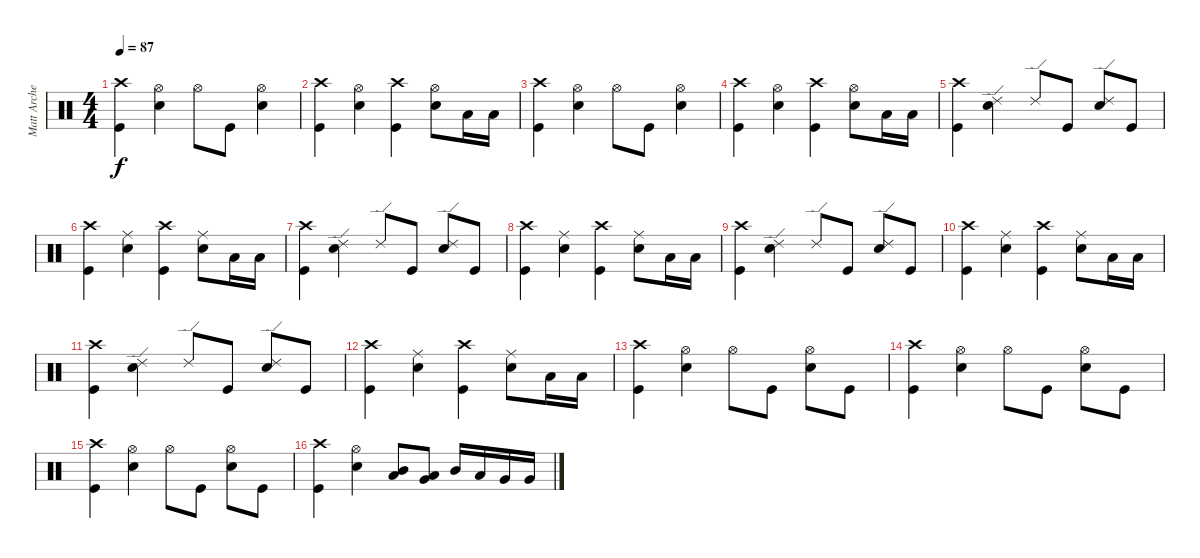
\track ("Matt Archer" "Matt Arche") {instrument percussion}
\staff {score}
\articulation defaults
\ts (4 4)
\tempo 87
\clef neutral
\ks c
("Kick (hit)" "Crash high (hit)").4{dy f} ("Snare (hit) 2" "Hi-Hat (open)").4 "Hi-Hat (open)".8 "Kick (hit)".8 ("Snare (hit) 2" "Hi-Hat (open)").4 |
("Kick (hit)" "Crash high (hit)").4 ("Snare (hit) 2" "Hi-Hat (open)").4 ("Kick (hit)" "Crash high (hit)").4 ("Snare (hit) 2" "Hi-Hat (open)").8 "Low Tom (hit)".16 "Low Tom (hit)".16 |
("Kick (hit)" "Crash high (hit)").4 ("Snare (hit) 2" "Hi-Hat (open)").4 "Hi-Hat (open)".8 "Kick (hit)".8 ("Snare (hit) 2" "Hi-Hat (open)").4 |
("Kick (hit)" "Crash high (hit)").4 ("Snare (hit) 2" "Hi-Hat (open)").4 ("Kick (hit)" "Crash high (hit)").4 ("Snare (hit) 2" "Hi-Hat (open)").8 "Low Tom (hit)".16 "Low Tom (hit)".16 |
("Kick (hit)" "Crash high (hit)").4 ("Snare (hit) 2" "Ride (edge) 2").4 "Ride (edge) 2".8 "Kick (hit)".8 ("Snare (hit) 2" "Ride (edge) 2").8 "Kick (hit)".8 |
("Kick (hit)" "Crash high (hit)").4 ("Snare (hit) 2" "Ride (middle)").4 ("Kick (hit)" "Crash high (hit)").4 ("Snare (hit) 2" "Ride (middle)").8 "Low Tom (hit)".16 "Low Tom (hit)".16 |
("Kick (hit)" "Crash high (hit)").4 ("Snare (hit) 2" "Ride (edge) 2").4 "Ride (edge) 2".8 "Kick (hit)".8 ("Snare (hit) 2" "Ride (edge) 2").8 "Kick (hit)".8 |
("Kick (hit)" "Crash high (hit)").4 ("Snare (hit) 2" "Ride (middle)").4 ("Kick (hit)" "Crash high (hit)").4 ("Snare (hit) 2" "Ride (middle)").8 "Low Tom (hit)".16 "Low Tom (hit)".16 |
("Kick (hit)" "Crash high (hit)").4 ("Snare (hit) 2" "Ride (edge) 2").4 "Ride (edge) 2".8 "Kick (hit)".8 ("Snare (hit) 2" "Ride (edge) 2").8 "Kick (hit)".8 |
("Kick (hit)" "Crash high (hit)").4 ("Snare (hit) 2" "Ride (middle)").4 ("Kick (hit)" "Crash high (hit)").4 ("Snare (hit) 2" "Ride (middle)").8 "Low Tom (hit)".16 "Low Tom (hit)".16 |
("Kick (hit)" "Crash high (hit)").4 ("Snare (hit) 2" "Ride (edge) 2").4 "Ride (edge) 2".8 "Kick (hit)".8 ("Snare (hit) 2" "Ride (edge) 2").8 "Kick (hit)".8 |
("Kick (hit)" "Crash high (hit)").4 ("Snare (hit) 2" "Ride (middle)").4 ("Kick (hit)" "Crash high (hit)").4 ("Snare (hit) 2" "Ride (middle)").8 "Low Tom (hit)".16 "Low Tom (hit)".16 |
("Kick (hit)" "Crash high (hit)").4 ("Snare (hit) 2" "Hi-Hat (open)").4 "Hi-Hat (open)".8 "Kick (hit)".8 ("Snare (hit) 2" "Hi-Hat (open)").8 "Kick (hit)".8 |
("Kick (hit)" "Crash high (hit)").4 ("Snare (hit) 2" "Hi-Hat (open)").4 "Hi-Hat (open)".8 "Kick (hit)".8 ("Snare (hit) 2" "Hi-Hat (open)").8 "Kick (hit)".8 |
("Kick (hit)" "Crash high (hit)").4 ("Snare (hit) 2" "Hi-Hat (open)").4 "Hi-Hat (open)".8 "Kick (hit)".8 ("Snare (hit) 2" "Hi-Hat (open)").8 "Kick (hit)".8 |
("Kick (hit)" "Crash high (hit)").4 ("Snare (hit) 2" "Hi-Hat (open)").4 ("Mid Tom (hit)" "Low Tom (hit)").8 ("Low Tom (hit)" "Very Low Tom (hit)").8 "Mid Tom (hit)".16 "Low Tom (hit)".16 "Very Low Tom (hit)".16 "Very Low Tom (hit)".16
